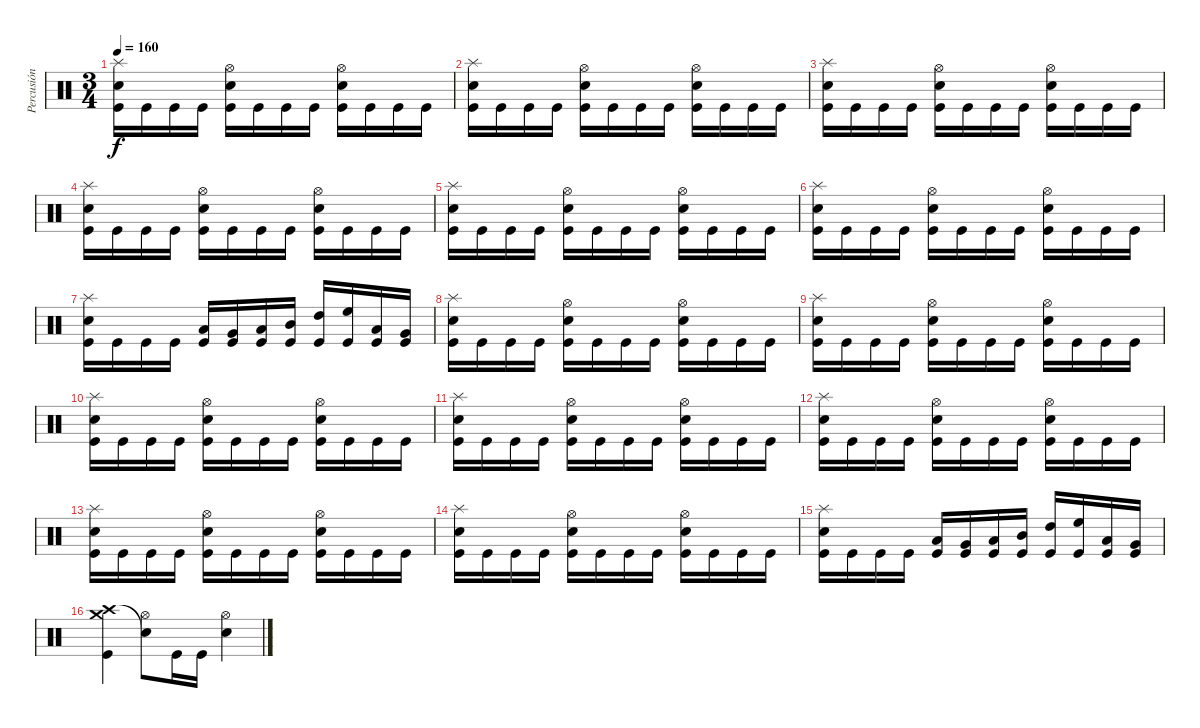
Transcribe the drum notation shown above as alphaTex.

\track ("Percusión" "Percusión") {instrument percussion}
\staff {score}
\articulation defaults
\ts (3 4)
\tempo 160
\clef neutral
\ks c
("Splash (hit)" "Electric Snare (hit)" "Kick (hit)").16{dy f} "Kick (hit)".16 "Kick (hit)".16 "Kick (hit)".16 ("Hi-Hat (open)" "Electric Snare (hit)" "Kick (hit)").16 "Kick (hit)".16 "Kick (hit)".16 "Kick (hit)".16 ("Hi-Hat (open)" "Electric Snare (hit)" "Kick (hit)").16 "Kick (hit)".16 "Kick (hit)".16 "Kick (hit)".16 |
("Splash (hit)" "Electric Snare (hit)" "Kick (hit)").16 "Kick (hit)".16 "Kick (hit)".16 "Kick (hit)".16 ("Hi-Hat (open)" "Electric Snare (hit)" "Kick (hit)").16 "Kick (hit)".16 "Kick (hit)".16 "Kick (hit)".16 ("Hi-Hat (open)" "Electric Snare (hit)" "Kick (hit)").16 "Kick (hit)".16 "Kick (hit)".16 "Kick (hit)".16 |
("Splash (hit)" "Electric Snare (hit)" "Kick (hit)").16 "Kick (hit)".16 "Kick (hit)".16 "Kick (hit)".16 ("Hi-Hat (open)" "Electric Snare (hit)" "Kick (hit)").16 "Kick (hit)".16 "Kick (hit)".16 "Kick (hit)".16 ("Hi-Hat (open)" "Electric Snare (hit)" "Kick (hit)").16 "Kick (hit)".16 "Kick (hit)".16 "Kick (hit)".16 |
("Splash (hit)" "Electric Snare (hit)" "Kick (hit)").16 "Kick (hit)".16 "Kick (hit)".16 "Kick (hit)".16 ("Hi-Hat (open)" "Electric Snare (hit)" "Kick (hit)").16 "Kick (hit)".16 "Kick (hit)".16 "Kick (hit)".16 ("Hi-Hat (open)" "Electric Snare (hit)" "Kick (hit)").16 "Kick (hit)".16 "Kick (hit)".16 "Kick (hit)".16 |
("Splash (hit)" "Electric Snare (hit)" "Kick (hit)").16 "Kick (hit)".16 "Kick (hit)".16 "Kick (hit)".16 ("Hi-Hat (open)" "Electric Snare (hit)" "Kick (hit)").16 "Kick (hit)".16 "Kick (hit)".16 "Kick (hit)".16 ("Hi-Hat (open)" "Electric Snare (hit)" "Kick (hit)").16 "Kick (hit)".16 "Kick (hit)".16 "Kick (hit)".16 |
("Splash (hit)" "Electric Snare (hit)" "Kick (hit)").16 "Kick (hit)".16 "Kick (hit)".16 "Kick (hit)".16 ("Hi-Hat (open)" "Electric Snare (hit)" "Kick (hit)").16 "Kick (hit)".16 "Kick (hit)".16 "Kick (hit)".16 ("Hi-Hat (open)" "Electric Snare (hit)" "Kick (hit)").16 "Kick (hit)".16 "Kick (hit)".16 "Kick (hit)".16 |
("Splash (hit)" "Electric Snare (hit)" "Kick (hit)").16 "Kick (hit)".16 "Kick (hit)".16 "Kick (hit)".16 ("Low Floor Tom (hit)" "Kick (hit)").16 ("Very Low Tom (hit)" "Kick (hit)").16 ("Low Tom (hit)" "Kick (hit)").16 ("Mid Tom (hit)" "Kick (hit)").16 ("High Tom (hit)" "Kick (hit)").16 ("High Floor Tom (hit)" "Kick (hit)").16 ("Low Tom (hit)" "Kick (hit)").16 ("Very Low Tom (hit)" "Kick (hit)").16 |
("Splash (hit)" "Electric Snare (hit)" "Kick (hit)").16 "Kick (hit)".16 "Kick (hit)".16 "Kick (hit)".16 ("Hi-Hat (open)" "Electric Snare (hit)" "Kick (hit)").16 "Kick (hit)".16 "Kick (hit)".16 "Kick (hit)".16 ("Hi-Hat (open)" "Electric Snare (hit)" "Kick (hit)").16 "Kick (hit)".16 "Kick (hit)".16 "Kick (hit)".16 |
("Splash (hit)" "Electric Snare (hit)" "Kick (hit)").16 "Kick (hit)".16 "Kick (hit)".16 "Kick (hit)".16 ("Hi-Hat (open)" "Electric Snare (hit)" "Kick (hit)").16 "Kick (hit)".16 "Kick (hit)".16 "Kick (hit)".16 ("Hi-Hat (open)" "Electric Snare (hit)" "Kick (hit)").16 "Kick (hit)".16 "Kick (hit)".16 "Kick (hit)".16 |
("Splash (hit)" "Electric Snare (hit)" "Kick (hit)").16 "Kick (hit)".16 "Kick (hit)".16 "Kick (hit)".16 ("Hi-Hat (open)" "Electric Snare (hit)" "Kick (hit)").16 "Kick (hit)".16 "Kick (hit)".16 "Kick (hit)".16 ("Hi-Hat (open)" "Electric Snare (hit)" "Kick (hit)").16 "Kick (hit)".16 "Kick (hit)".16 "Kick (hit)".16 |
("Splash (hit)" "Electric Snare (hit)" "Kick (hit)").16 "Kick (hit)".16 "Kick (hit)".16 "Kick (hit)".16 ("Hi-Hat (open)" "Electric Snare (hit)" "Kick (hit)").16 "Kick (hit)".16 "Kick (hit)".16 "Kick (hit)".16 ("Hi-Hat (open)" "Electric Snare (hit)" "Kick (hit)").16 "Kick (hit)".16 "Kick (hit)".16 "Kick (hit)".16 |
("Splash (hit)" "Electric Snare (hit)" "Kick (hit)").16 "Kick (hit)".16 "Kick (hit)".16 "Kick (hit)".16 ("Hi-Hat (open)" "Electric Snare (hit)" "Kick (hit)").16 "Kick (hit)".16 "Kick (hit)".16 "Kick (hit)".16 ("Hi-Hat (open)" "Electric Snare (hit)" "Kick (hit)").16 "Kick (hit)".16 "Kick (hit)".16 "Kick (hit)".16 |
("Splash (hit)" "Electric Snare (hit)" "Kick (hit)").16 "Kick (hit)".16 "Kick (hit)".16 "Kick (hit)".16 ("Hi-Hat (open)" "Electric Snare (hit)" "Kick (hit)").16 "Kick (hit)".16 "Kick (hit)".16 "Kick (hit)".16 ("Hi-Hat (open)" "Electric Snare (hit)" "Kick (hit)").16 "Kick (hit)".16 "Kick (hit)".16 "Kick (hit)".16 |
("Splash (hit)" "Electric Snare (hit)" "Kick (hit)").16 "Kick (hit)".16 "Kick (hit)".16 "Kick (hit)".16 ("Hi-Hat (open)" "Electric Snare (hit)" "Kick (hit)").16 "Kick (hit)".16 "Kick (hit)".16 "Kick (hit)".16 ("Hi-Hat (open)" "Electric Snare (hit)" "Kick (hit)").16 "Kick (hit)".16 "Kick (hit)".16 "Kick (hit)".16 |
("Splash (hit)" "Electric Snare (hit)" "Kick (hit)").16 "Kick (hit)".16 "Kick (hit)".16 "Kick (hit)".16 ("Low Floor Tom (hit)" "Kick (hit)").16 ("Very Low Tom (hit)" "Kick (hit)").16 ("Low Tom (hit)" "Kick (hit)").16 ("Mid Tom (hit)" "Kick (hit)").16 ("High Tom (hit)" "Kick (hit)").16 ("High Floor Tom (hit)" "Kick (hit)").16 ("Low Tom (hit)" "Kick (hit)").16 ("Very Low Tom (hit)" "Kick (hit)").16 |
("Crash medium (hit)" "Crash high (hit)" "Kick (hit)").4 ("Hi-Hat (open)" "Snare (hit)"{t}).8 "Kick (hit)".16 "Kick (hit)".16 ("Hi-Hat (open)" "Electric Snare (hit)").4
